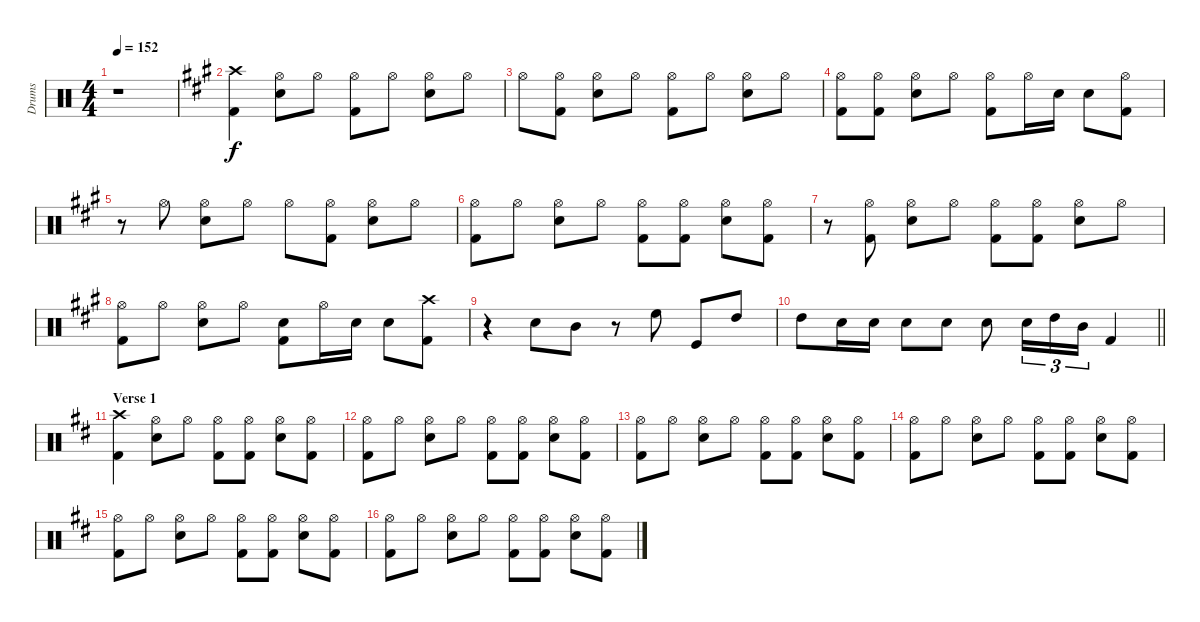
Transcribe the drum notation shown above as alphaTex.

\track ("Drums" "Drums") {instrument percussion}
\staff {score}
\articulation defaults
\ts (4 4)
\tempo 152
\clef neutral
\ks c
r.1{dy f} |
\ks f#minor
("Kick (hit) 2" "Crash high (hit)").4 ("Snare (hit) 2" "Hi-Hat (open)").8 "Hi-Hat (open)".8 ("Kick (hit) 2" "Hi-Hat (open)").8 "Hi-Hat (open)".8 ("Snare (hit) 2" "Hi-Hat (open)").8 "Hi-Hat (open)".8 |
"Hi-Hat (open)".8 ("Kick (hit) 2" "Hi-Hat (open)").8 ("Snare (hit) 2" "Hi-Hat (open)").8 "Hi-Hat (open)".8 ("Kick (hit) 2" "Hi-Hat (open)").8 "Hi-Hat (open)".8 ("Snare (hit) 2" "Hi-Hat (open)").8 "Hi-Hat (open)".8 |
("Kick (hit) 2" "Hi-Hat (open)").8 ("Kick (hit) 2" "Hi-Hat (open)").8 ("Snare (hit) 2" "Hi-Hat (open)").8 "Hi-Hat (open)".8 ("Kick (hit) 2" "Hi-Hat (open)").8 "Hi-Hat (open)".16 "Snare (hit) 2".16 "Snare (hit) 2".8 ("Kick (hit) 2" "Hi-Hat (open)").8 |
r.8 "Hi-Hat (open)".8 ("Snare (hit) 2" "Hi-Hat (open)").8 "Hi-Hat (open)".8 "Hi-Hat (open)".8 ("Kick (hit) 2" "Hi-Hat (open)").8 ("Snare (hit) 2" "Hi-Hat (open)").8 "Hi-Hat (open)".8 |
("Kick (hit) 2" "Hi-Hat (open)").8 "Hi-Hat (open)".8 ("Snare (hit) 2" "Hi-Hat (open)").8 "Hi-Hat (open)".8 ("Kick (hit) 2" "Hi-Hat (open)").8 ("Kick (hit) 2" "Hi-Hat (open)").8 ("Snare (hit) 2" "Hi-Hat (open)").8 ("Kick (hit) 2" "Hi-Hat (open)").8 |
r.8 ("Kick (hit) 2" "Hi-Hat (open)").8 ("Snare (hit) 2" "Hi-Hat (open)").8 "Hi-Hat (open)".8 ("Kick (hit) 2" "Hi-Hat (open)").8 ("Kick (hit) 2" "Hi-Hat (open)").8 ("Snare (hit) 2" "Hi-Hat (open)").8 "Hi-Hat (open)".8 |
("Kick (hit) 2" "Hi-Hat (open)").8 "Hi-Hat (open)".8 ("Snare (hit) 2" "Hi-Hat (open)").8 "Hi-Hat (open)".8 ("Kick (hit) 2" "Snare (hit) 2").8 "Hi-Hat (open)".16 "Snare (hit) 2".16 "Snare (hit) 2".8 ("Kick (hit) 2" "Crash high (hit)").8 |
r.4 "Snare (hit) 2".8 "Mid Tom (hit)".8 r.8 "High Floor Tom (hit)".8 "Kick (hit)".8 "High Tom (hit)".8 |
\barLineRight lightlight "High Tom (hit)".8 "Snare (hit) 2".16 "Snare (hit) 2".16 "Snare (hit) 2".8 "Snare (hit) 2".8 "Snare (hit) 2".8 "Snare (hit) 2".16{tu (3 2)} "High Tom (hit)".16{tu (3 2)} "Mid Tom (hit)".16{tu (3 2)} "Kick (hit) 2".4
|
\section ("" "Verse 1")
\ks bminor
("Kick (hit) 2" "Crash high (hit)").4 ("Snare (hit) 2" "Hi-Hat (open)").8 "Hi-Hat (open)".8 ("Kick (hit) 2" "Hi-Hat (open)").8 ("Kick (hit) 2" "Hi-Hat (open)").8 ("Snare (hit) 2" "Hi-Hat (open)").8 ("Kick (hit) 2" "Hi-Hat (open)").8 |
("Kick (hit) 2" "Hi-Hat (open)").8 "Hi-Hat (open)".8 ("Snare (hit) 2" "Hi-Hat (open)").8 "Hi-Hat (open)".8 ("Kick (hit) 2" "Hi-Hat (open)").8 ("Kick (hit) 2" "Hi-Hat (open)").8 ("Snare (hit) 2" "Hi-Hat (open)").8 ("Kick (hit) 2" "Hi-Hat (open)").8 |
("Kick (hit) 2" "Hi-Hat (open)").8 "Hi-Hat (open)".8 ("Snare (hit) 2" "Hi-Hat (open)").8 "Hi-Hat (open)".8 ("Kick (hit) 2" "Hi-Hat (open)").8 ("Kick (hit) 2" "Hi-Hat (open)").8 ("Snare (hit) 2" "Hi-Hat (open)").8 ("Kick (hit) 2" "Hi-Hat (open)").8 |
("Kick (hit) 2" "Hi-Hat (open)").8 "Hi-Hat (open)".8 ("Snare (hit) 2" "Hi-Hat (open)").8 "Hi-Hat (open)".8 ("Kick (hit) 2" "Hi-Hat (open)").8 ("Kick (hit) 2" "Hi-Hat (open)").8 ("Snare (hit) 2" "Hi-Hat (open)").8 ("Kick (hit) 2" "Hi-Hat (open)").8 |
("Kick (hit) 2" "Hi-Hat (open)").8 "Hi-Hat (open)".8 ("Snare (hit) 2" "Hi-Hat (open)").8 "Hi-Hat (open)".8 ("Kick (hit) 2" "Hi-Hat (open)").8 ("Kick (hit) 2" "Hi-Hat (open)").8 ("Snare (hit) 2" "Hi-Hat (open)").8 ("Kick (hit) 2" "Hi-Hat (open)").8 |
("Kick (hit) 2" "Hi-Hat (open)").8 "Hi-Hat (open)".8 ("Snare (hit) 2" "Hi-Hat (open)").8 "Hi-Hat (open)".8 ("Kick (hit) 2" "Hi-Hat (open)").8 ("Kick (hit) 2" "Hi-Hat (open)").8 ("Snare (hit) 2" "Hi-Hat (open)").8 ("Kick (hit) 2" "Hi-Hat (open)").8
